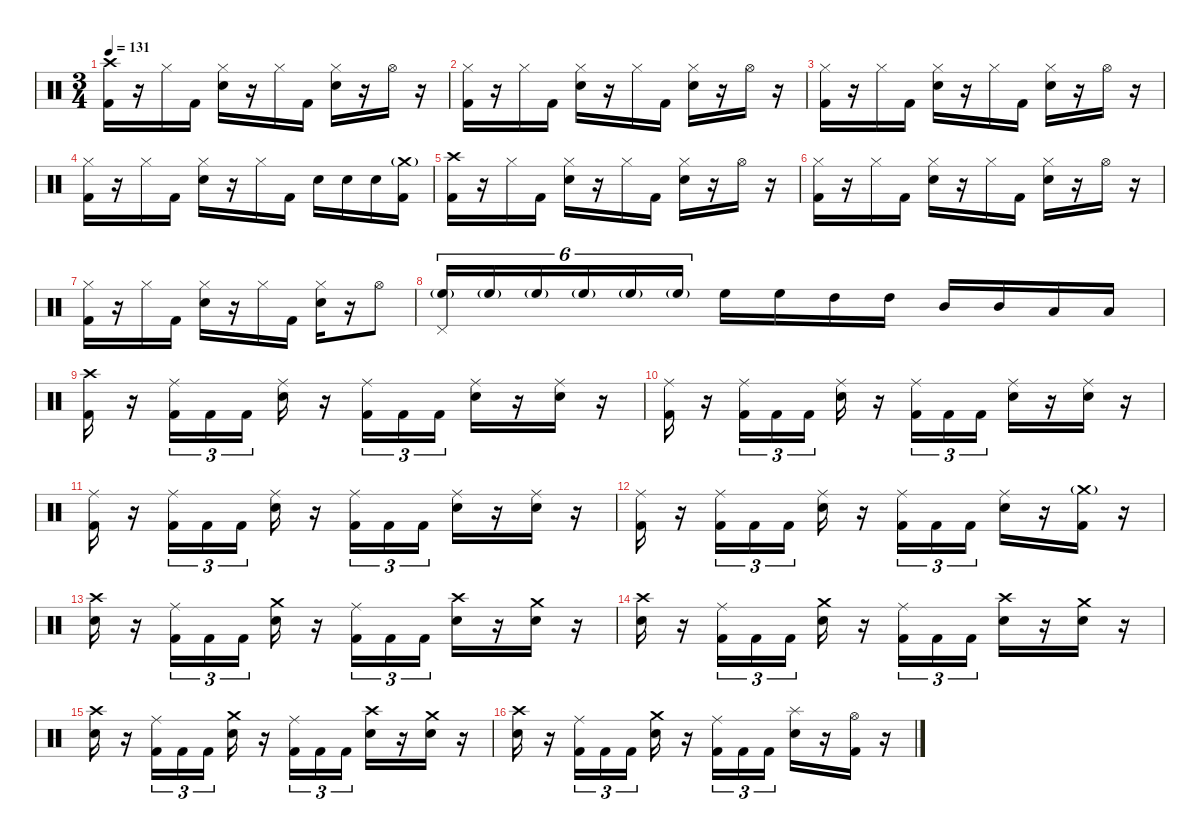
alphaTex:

\defaultSystemsLayout 4
\hideDynamics
\bracketExtendMode nobrackets
\singleTrackTrackNamePolicy hidden
\multiTrackTrackNamePolicy hidden
\otherSystemsTrackNameOrientation horizontal
\track ("Drums" "drm.") {defaultSystemsLayout 4 instrument percussion}
\staff {score}
\articulation defaults
\ts (3 4)
\beaming (8 2 2 2)
\tempo 131
\clef neutral
\ks c
("Kick (hit) 2" "Crash high (hit)").16{dy fff beam Down} r.16{beam Down} "Hi-Hat (closed)".16{dy mp beam Down} "Kick (hit) 2".16{dy fff beam Down} ("Snare (hit) 2" "Hi-Hat (closed)").16{beam Down} r.16{beam Down} "Hi-Hat (closed)".16{dy mp beam Down} "Kick (hit) 2".16{dy fff beam Down} ("Snare (hit) 2" "Hi-Hat (closed)").16{beam Down} r.16{beam Down} "Hi-Hat (open)".16{dy mp beam Down} r.16{beam Down} |
("Kick (hit) 2" "Hi-Hat (closed)").16{dy fff beam Down} r.16{beam Down} "Hi-Hat (closed)".16{dy mp beam Down} "Kick (hit) 2".16{dy fff beam Down} ("Snare (hit) 2" "Hi-Hat (closed)").16{beam Down} r.16{beam Down} "Hi-Hat (closed)".16{dy mp beam Down} "Kick (hit) 2".16{dy fff beam Down} ("Snare (hit) 2" "Hi-Hat (closed)").16{beam Down} r.16{beam Down} "Hi-Hat (open)".16{dy mp beam Down} r.16{beam Down} |
("Kick (hit) 2" "Hi-Hat (closed)").16{dy fff beam Down} r.16{beam Down} "Hi-Hat (closed)".16{dy mp beam Down} "Kick (hit) 2".16{dy fff beam Down} ("Snare (hit) 2" "Hi-Hat (closed)").16{beam Down} r.16{beam Down} "Hi-Hat (closed)".16{dy mp beam Down} "Kick (hit) 2".16{dy fff beam Down} ("Snare (hit) 2" "Hi-Hat (closed)").16{beam Down} r.16{beam Down} "Hi-Hat (open)".16{dy mp beam Down} r.16{beam Down} |
("Kick (hit) 2" "Hi-Hat (closed)").16{dy fff beam Down} r.16{beam Down} "Hi-Hat (closed)".16{dy mp beam Down} "Kick (hit) 2".16{dy fff beam Down} ("Snare (hit) 2" "Hi-Hat (closed)").16{beam Down} r.16{beam Down} "Hi-Hat (closed)".16{dy mp beam Down} "Kick (hit) 2".16{dy fff beam Down} "Snare (hit) 2".16{beam Down} "Snare (hit) 2".16{beam Down} "Snare (hit) 2".16{beam Down} ("Kick (hit) 2" "Crash medium (hit)"{g}).16{beam Down} |
("Kick (hit) 2" "Crash high (hit)").16{beam Down} r.16{beam Down} "Hi-Hat (closed)".16{dy mp beam Down} "Kick (hit) 2".16{dy fff beam Down} ("Snare (hit) 2" "Hi-Hat (closed)").16{beam Down} r.16{beam Down} "Hi-Hat (closed)".16{dy mp beam Down} "Kick (hit) 2".16{dy fff beam Down} ("Snare (hit) 2" "Hi-Hat (closed)").16{beam Down} r.16{beam Down} "Hi-Hat (open)".16{dy mp beam Down} r.16{beam Down} |
("Kick (hit) 2" "Hi-Hat (closed)").16{dy fff beam Down} r.16{beam Down} "Hi-Hat (closed)".16{dy mp beam Down} "Kick (hit) 2".16{dy fff beam Down} ("Snare (hit) 2" "Hi-Hat (closed)").16{beam Down} r.16{beam Down} "Hi-Hat (closed)".16{dy mp beam Down} "Kick (hit) 2".16{dy fff beam Down} ("Snare (hit) 2" "Hi-Hat (closed)").16{beam Down} r.16{beam Down} "Hi-Hat (open)".16{dy mp beam Down} r.16{beam Down} |
("Kick (hit) 2" "Hi-Hat (closed)").16{dy fff beam Down} r.16{beam Down} "Hi-Hat (closed)".16{dy mp beam Down} "Kick (hit) 2".16{dy fff beam Down} ("Snare (hit) 2" "Hi-Hat (closed)").16{beam Down} r.16{beam Down} "Hi-Hat (closed)".16{dy mp beam Down} "Kick (hit) 2".16{dy fff beam Down} ("Snare (hit) 2" "Hi-Hat (closed)").16{beam Down} r.16{beam Down} "Hi-Hat (open)".8{dy mp beam Down} |
("High Floor Tom (hit)"{g} "Pedal Hi-Hat (hit)").16{tu (6 4) beam Up} "High Floor Tom (hit)"{g}.16{tu (6 4) dy f beam Up} "High Floor Tom (hit)"{g}.16{tu (6 4) beam Up} "High Floor Tom (hit)"{g}.16{tu (6 4) dy ff beam Up} "High Floor Tom (hit)"{g}.16{tu (6 4) dy fff beam Up} "High Floor Tom (hit)"{g}.16{tu (6 4) beam Up} "High Floor Tom (hit)".16{beam Down} "High Floor Tom (hit)".16{beam Down} "High Tom (hit)".16{beam Down} "High Tom (hit)".16{beam Down} "Mid Tom (hit)".16{beam Up} "Mid Tom (hit)".16{beam Up} "Low Tom (hit)".16{beam Up} "Low Tom (hit)".16{beam Up} |
("Kick (hit) 2" "Crash high (hit)").16{beam Down} r.16{beam Down} ("Kick (hit) 2" "Ride (middle)").16{tu (3 2) beam Down} "Kick (hit) 2".16{tu (3 2) beam Down} "Kick (hit) 2".16{tu (3 2) beam Down} ("Snare (hit) 2" "Ride (middle)").16{beam Down} r.16{beam Down} ("Kick (hit) 2" "Ride (middle)").16{tu (3 2) beam Down} "Kick (hit) 2".16{tu (3 2) beam Down} "Kick (hit) 2".16{tu (3 2) beam Down} ("Snare (hit) 2" "Ride (middle)").16{beam Down} r.16{beam Down} ("Snare (hit) 2" "Ride (middle)").16{beam Down} r.16{beam Down} |
("Kick (hit) 2" "Ride (middle)").16{beam Down} r.16{beam Down} ("Kick (hit) 2" "Ride (middle)").16{tu (3 2) beam Down} "Kick (hit) 2".16{tu (3 2) beam Down} "Kick (hit) 2".16{tu (3 2) beam Down} ("Snare (hit) 2" "Ride (middle)").16{beam Down} r.16{beam Down} ("Kick (hit) 2" "Ride (middle)").16{tu (3 2) beam Down} "Kick (hit) 2".16{tu (3 2) beam Down} "Kick (hit) 2".16{tu (3 2) beam Down} ("Snare (hit) 2" "Ride (middle)").16{beam Down} r.16{beam Down} ("Snare (hit) 2" "Ride (middle)").16{beam Down} r.16{beam Down} |
("Kick (hit) 2" "Ride (middle)").16{beam Down} r.16{beam Down} ("Kick (hit) 2" "Ride (middle)").16{tu (3 2) beam Down} "Kick (hit) 2".16{tu (3 2) beam Down} "Kick (hit) 2".16{tu (3 2) beam Down} ("Snare (hit) 2" "Ride (middle)").16{beam Down} r.16{beam Down} ("Kick (hit) 2" "Ride (middle)").16{tu (3 2) beam Down} "Kick (hit) 2".16{tu (3 2) beam Down} "Kick (hit) 2".16{tu (3 2) beam Down} ("Snare (hit) 2" "Ride (middle)").16{beam Down} r.16{beam Down} ("Snare (hit) 2" "Ride (middle)").16{beam Down} r.16{beam Down} |
("Kick (hit) 2" "Ride (middle)").16{beam Down} r.16{beam Down} ("Kick (hit) 2" "Ride (middle)").16{tu (3 2) beam Down} "Kick (hit) 2".16{tu (3 2) beam Down} "Kick (hit) 2".16{tu (3 2) beam Down} ("Snare (hit) 2" "Ride (middle)").16{beam Down} r.16{beam Down} ("Kick (hit) 2" "Ride (middle)").16{tu (3 2) beam Down} "Kick (hit) 2".16{tu (3 2) beam Down} "Kick (hit) 2".16{tu (3 2) beam Down} ("Snare (hit) 2" "Ride (middle)").16{beam Down} r.16{beam Down} ("Kick (hit) 2" "Crash medium (hit)"{g}).16{beam Down} r.16{beam Down} |
("Snare (hit) 2" "Crash high (hit)").16{beam Down} r.16{beam Down} ("Kick (hit) 2" "Ride (middle)").16{tu (3 2) beam Down} "Kick (hit) 2".16{tu (3 2) beam Down} "Kick (hit) 2".16{tu (3 2) beam Down} ("Snare (hit) 2" "Crash medium (hit)").16{beam Down} r.16{beam Down} ("Kick (hit) 2" "Ride (middle)").16{tu (3 2) beam Down} "Kick (hit) 2".16{tu (3 2) beam Down} "Kick (hit) 2".16{tu (3 2) beam Down} ("Snare (hit) 2" "Crash high (hit)").16{beam Down} r.16{beam Down} ("Snare (hit) 2" "Crash medium (hit)").16{beam Down} r.16{beam Down} |
("Snare (hit) 2" "Crash high (hit)").16{beam Down} r.16{beam Down} ("Kick (hit) 2" "Ride (middle)").16{tu (3 2) beam Down} "Kick (hit) 2".16{tu (3 2) beam Down} "Kick (hit) 2".16{tu (3 2) beam Down} ("Snare (hit) 2" "Crash medium (hit)").16{beam Down} r.16{beam Down} ("Kick (hit) 2" "Ride (middle)").16{tu (3 2) beam Down} "Kick (hit) 2".16{tu (3 2) beam Down} "Kick (hit) 2".16{tu (3 2) beam Down} ("Snare (hit) 2" "Crash high (hit)").16{beam Down} r.16{beam Down} ("Snare (hit) 2" "Crash medium (hit)").16{beam Down} r.16{beam Down} |
("Snare (hit) 2" "Crash high (hit)").16{beam Down} r.16{beam Down} ("Kick (hit) 2" "Ride (middle)").16{tu (3 2) beam Down} "Kick (hit) 2".16{tu (3 2) beam Down} "Kick (hit) 2".16{tu (3 2) beam Down} ("Snare (hit) 2" "Crash medium (hit)").16{beam Down} r.16{beam Down} ("Kick (hit) 2" "Ride (middle)").16{tu (3 2) beam Down} "Kick (hit) 2".16{tu (3 2) beam Down} "Kick (hit) 2".16{tu (3 2) beam Down} ("Snare (hit) 2" "Crash high (hit)").16{beam Down} r.16{beam Down} ("Snare (hit) 2" "Crash medium (hit)").16{beam Down} r.16{beam Down} |
("Snare (hit) 2" "Crash high (hit)").16{beam Down} r.16{beam Down} ("Kick (hit) 2" "Ride (middle)").16{tu (3 2) beam Down} "Kick (hit) 2".16{tu (3 2) beam Down} "Kick (hit) 2".16{tu (3 2) beam Down} ("Snare (hit) 2" "Crash medium (hit)").16{beam Down} r.16{beam Down} ("Kick (hit) 2" "Ride (middle)").16{tu (3 2) beam Down} "Kick (hit) 2".16{tu (3 2) beam Down} "Kick (hit) 2".16{tu (3 2) beam Down} ("Snare (hit) 2" "Splash (hit)").16{beam Down} r.16{beam Down} ("Kick (hit) 2" "Hi-Hat (open)").16{beam Down} r.16{beam Down}
